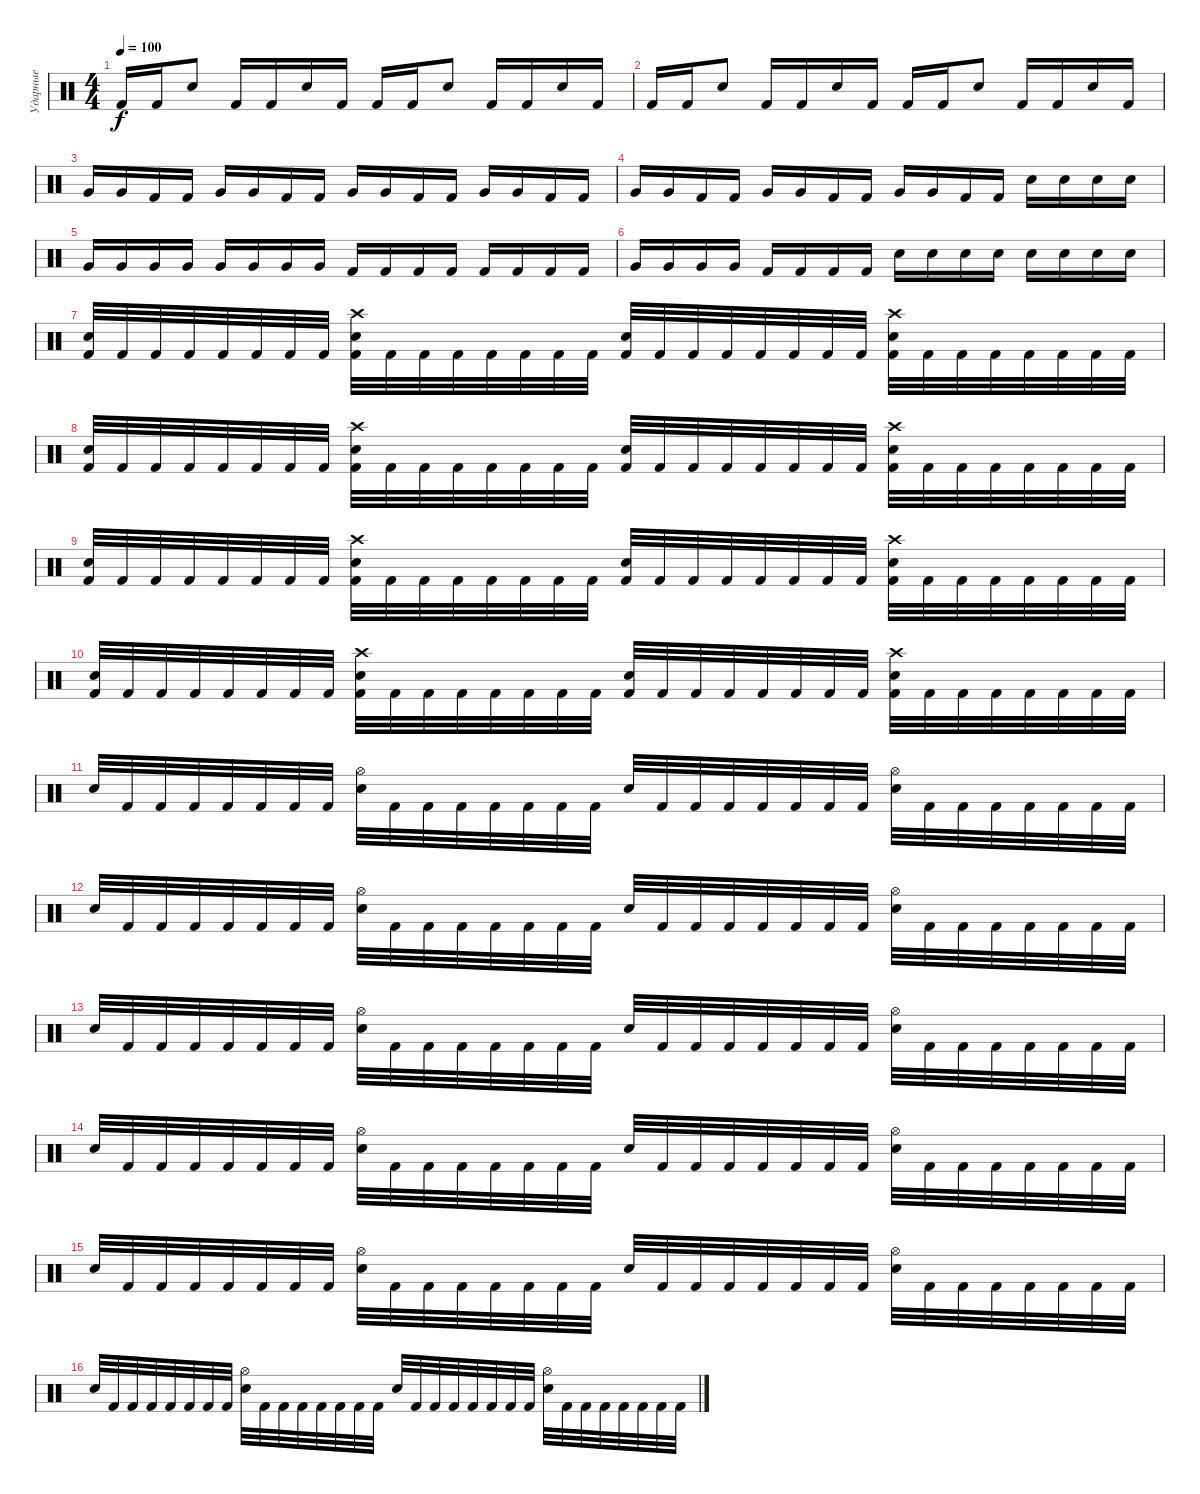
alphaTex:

\track ("Ударные" "Ударные") {instrument percussion}
\staff {score}
\articulation defaults
\ts (4 4)
\tempo 100
\clef neutral
\ks c "Kick (hit) 2".16{dy f} "Kick (hit) 2".16 "Electric Snare (hit)".8 "Kick (hit) 2".16 "Kick (hit) 2".16 "Electric Snare (hit)".16 "Kick (hit) 2".16 "Kick (hit) 2".16 "Kick (hit) 2".16 "Electric Snare (hit)".8 "Kick (hit) 2".16 "Kick (hit) 2".16 "Electric Snare (hit)".16 "Kick (hit) 2".16
|
"Kick (hit) 2".16 "Kick (hit) 2".16 "Electric Snare (hit)".8 "Kick (hit) 2".16 "Kick (hit) 2".16 "Electric Snare (hit)".16 "Kick (hit) 2".16 "Kick (hit) 2".16 "Kick (hit) 2".16 "Electric Snare (hit)".8 "Kick (hit) 2".16 "Kick (hit) 2".16 "Electric Snare (hit)".16 "Kick (hit) 2".16 |
"Very Low Tom (hit)".16 "Very Low Tom (hit)".16 "Kick (hit) 2".16 "Kick (hit) 2".16 "Very Low Tom (hit)".16 "Very Low Tom (hit)".16 "Kick (hit) 2".16 "Kick (hit) 2".16 "Very Low Tom (hit)".16 "Very Low Tom (hit)".16 "Kick (hit) 2".16 "Kick (hit) 2".16 "Very Low Tom (hit)".16 "Very Low Tom (hit)".16 "Kick (hit) 2".16 "Kick (hit) 2".16 |
"Very Low Tom (hit)".16 "Very Low Tom (hit)".16 "Kick (hit) 2".16 "Kick (hit) 2".16 "Very Low Tom (hit)".16 "Very Low Tom (hit)".16 "Kick (hit) 2".16 "Kick (hit) 2".16 "Very Low Tom (hit)".16 "Very Low Tom (hit)".16 "Kick (hit) 2".16 "Kick (hit) 2".16 "Electric Snare (hit)".16 "Electric Snare (hit)".16 "Electric Snare (hit)".16 "Electric Snare (hit)".16 |
"Very Low Tom (hit)".16 "Very Low Tom (hit)".16 "Very Low Tom (hit)".16 "Very Low Tom (hit)".16 "Very Low Tom (hit)".16 "Very Low Tom (hit)".16 "Very Low Tom (hit)".16 "Very Low Tom (hit)".16 "Kick (hit) 2".16 "Kick (hit) 2".16 "Kick (hit) 2".16 "Kick (hit) 2".16 "Kick (hit) 2".16 "Kick (hit) 2".16 "Kick (hit) 2".16 "Kick (hit) 2".16 |
"Very Low Tom (hit)".16 "Very Low Tom (hit)".16 "Very Low Tom (hit)".16 "Very Low Tom (hit)".16 "Kick (hit) 2".16 "Kick (hit) 2".16 "Kick (hit) 2".16 "Kick (hit) 2".16 "Electric Snare (hit)".16 "Electric Snare (hit)".16 "Electric Snare (hit)".16 "Electric Snare (hit)".16 "Electric Snare (hit)".16 "Electric Snare (hit)".16 "Electric Snare (hit)".16 "Electric Snare (hit)".16 |
("Electric Snare (hit)" "Kick (hit) 2").32 "Kick (hit) 2".32 "Kick (hit) 2".32 "Kick (hit) 2".32 "Kick (hit) 2".32 "Kick (hit) 2".32 "Kick (hit) 2".32 "Kick (hit) 2".32 ("Crash high (hit)" "Electric Snare (hit)" "Kick (hit) 2").32 "Kick (hit) 2".32 "Kick (hit) 2".32 "Kick (hit) 2".32 "Kick (hit) 2".32 "Kick (hit) 2".32 "Kick (hit) 2".32 "Kick (hit) 2".32 ("Electric Snare (hit)" "Kick (hit) 2").32 "Kick (hit) 2".32 "Kick (hit) 2".32 "Kick (hit) 2".32 "Kick (hit) 2".32 "Kick (hit) 2".32 "Kick (hit) 2".32 "Kick (hit) 2".32 ("Crash high (hit)" "Electric Snare (hit)" "Kick (hit) 2").32 "Kick (hit) 2".32 "Kick (hit) 2".32 "Kick (hit) 2".32 "Kick (hit) 2".32 "Kick (hit) 2".32 "Kick (hit) 2".32 "Kick (hit) 2".32 |
("Electric Snare (hit)" "Kick (hit) 2").32 "Kick (hit) 2".32 "Kick (hit) 2".32 "Kick (hit) 2".32 "Kick (hit) 2".32 "Kick (hit) 2".32 "Kick (hit) 2".32 "Kick (hit) 2".32 ("Crash high (hit)" "Electric Snare (hit)" "Kick (hit) 2").32 "Kick (hit) 2".32 "Kick (hit) 2".32 "Kick (hit) 2".32 "Kick (hit) 2".32 "Kick (hit) 2".32 "Kick (hit) 2".32 "Kick (hit) 2".32 ("Electric Snare (hit)" "Kick (hit) 2").32 "Kick (hit) 2".32 "Kick (hit) 2".32 "Kick (hit) 2".32 "Kick (hit) 2".32 "Kick (hit) 2".32 "Kick (hit) 2".32 "Kick (hit) 2".32 ("Crash high (hit)" "Electric Snare (hit)" "Kick (hit) 2").32 "Kick (hit) 2".32 "Kick (hit) 2".32 "Kick (hit) 2".32 "Kick (hit) 2".32 "Kick (hit) 2".32 "Kick (hit) 2".32 "Kick (hit) 2".32 |
("Electric Snare (hit)" "Kick (hit) 2").32 "Kick (hit) 2".32 "Kick (hit) 2".32 "Kick (hit) 2".32 "Kick (hit) 2".32 "Kick (hit) 2".32 "Kick (hit) 2".32 "Kick (hit) 2".32 ("Crash high (hit)" "Electric Snare (hit)" "Kick (hit) 2").32 "Kick (hit) 2".32 "Kick (hit) 2".32 "Kick (hit) 2".32 "Kick (hit) 2".32 "Kick (hit) 2".32 "Kick (hit) 2".32 "Kick (hit) 2".32 ("Electric Snare (hit)" "Kick (hit) 2").32 "Kick (hit) 2".32 "Kick (hit) 2".32 "Kick (hit) 2".32 "Kick (hit) 2".32 "Kick (hit) 2".32 "Kick (hit) 2".32 "Kick (hit) 2".32 ("Crash high (hit)" "Electric Snare (hit)" "Kick (hit) 2").32 "Kick (hit) 2".32 "Kick (hit) 2".32 "Kick (hit) 2".32 "Kick (hit) 2".32 "Kick (hit) 2".32 "Kick (hit) 2".32 "Kick (hit) 2".32 |
("Electric Snare (hit)" "Kick (hit) 2").32 "Kick (hit) 2".32 "Kick (hit) 2".32 "Kick (hit) 2".32 "Kick (hit) 2".32 "Kick (hit) 2".32 "Kick (hit) 2".32 "Kick (hit) 2".32 ("Crash high (hit)" "Electric Snare (hit)" "Kick (hit) 2").32 "Kick (hit) 2".32 "Kick (hit) 2".32 "Kick (hit) 2".32 "Kick (hit) 2".32 "Kick (hit) 2".32 "Kick (hit) 2".32 "Kick (hit) 2".32 ("Electric Snare (hit)" "Kick (hit) 2").32 "Kick (hit) 2".32 "Kick (hit) 2".32 "Kick (hit) 2".32 "Kick (hit) 2".32 "Kick (hit) 2".32 "Kick (hit) 2".32 "Kick (hit) 2".32 ("Crash high (hit)" "Electric Snare (hit)" "Kick (hit) 2").32 "Kick (hit) 2".32 "Kick (hit) 2".32 "Kick (hit) 2".32 "Kick (hit) 2".32 "Kick (hit) 2".32 "Kick (hit) 2".32 "Kick (hit) 2".32 |
"Electric Snare (hit)".32 "Kick (hit) 2".32 "Kick (hit) 2".32 "Kick (hit) 2".32 "Kick (hit) 2".32 "Kick (hit) 2".32 "Kick (hit) 2".32 "Kick (hit) 2".32 ("Hi-Hat (open)" "Electric Snare (hit)").32 "Kick (hit) 2".32 "Kick (hit) 2".32 "Kick (hit) 2".32 "Kick (hit) 2".32 "Kick (hit) 2".32 "Kick (hit) 2".32 "Kick (hit) 2".32 "Electric Snare (hit)".32 "Kick (hit) 2".32 "Kick (hit) 2".32 "Kick (hit) 2".32 "Kick (hit) 2".32 "Kick (hit) 2".32 "Kick (hit) 2".32 "Kick (hit) 2".32 ("Hi-Hat (open)" "Electric Snare (hit)").32 "Kick (hit) 2".32 "Kick (hit) 2".32 "Kick (hit) 2".32 "Kick (hit) 2".32 "Kick (hit) 2".32 "Kick (hit) 2".32 "Kick (hit) 2".32 |
"Electric Snare (hit)".32 "Kick (hit) 2".32 "Kick (hit) 2".32 "Kick (hit) 2".32 "Kick (hit) 2".32 "Kick (hit) 2".32 "Kick (hit) 2".32 "Kick (hit) 2".32 ("Hi-Hat (open)" "Electric Snare (hit)").32 "Kick (hit) 2".32 "Kick (hit) 2".32 "Kick (hit) 2".32 "Kick (hit) 2".32 "Kick (hit) 2".32 "Kick (hit) 2".32 "Kick (hit) 2".32 "Electric Snare (hit)".32 "Kick (hit) 2".32 "Kick (hit) 2".32 "Kick (hit) 2".32 "Kick (hit) 2".32 "Kick (hit) 2".32 "Kick (hit) 2".32 "Kick (hit) 2".32 ("Hi-Hat (open)" "Electric Snare (hit)").32 "Kick (hit) 2".32 "Kick (hit) 2".32 "Kick (hit) 2".32 "Kick (hit) 2".32 "Kick (hit) 2".32 "Kick (hit) 2".32 "Kick (hit) 2".32 |
"Electric Snare (hit)".32 "Kick (hit) 2".32 "Kick (hit) 2".32 "Kick (hit) 2".32 "Kick (hit) 2".32 "Kick (hit) 2".32 "Kick (hit) 2".32 "Kick (hit) 2".32 ("Hi-Hat (open)" "Electric Snare (hit)").32 "Kick (hit) 2".32 "Kick (hit) 2".32 "Kick (hit) 2".32 "Kick (hit) 2".32 "Kick (hit) 2".32 "Kick (hit) 2".32 "Kick (hit) 2".32 "Electric Snare (hit)".32 "Kick (hit) 2".32 "Kick (hit) 2".32 "Kick (hit) 2".32 "Kick (hit) 2".32 "Kick (hit) 2".32 "Kick (hit) 2".32 "Kick (hit) 2".32 ("Hi-Hat (open)" "Electric Snare (hit)").32 "Kick (hit) 2".32 "Kick (hit) 2".32 "Kick (hit) 2".32 "Kick (hit) 2".32 "Kick (hit) 2".32 "Kick (hit) 2".32 "Kick (hit) 2".32 |
"Electric Snare (hit)".32 "Kick (hit) 2".32 "Kick (hit) 2".32 "Kick (hit) 2".32 "Kick (hit) 2".32 "Kick (hit) 2".32 "Kick (hit) 2".32 "Kick (hit) 2".32 ("Hi-Hat (open)" "Electric Snare (hit)").32 "Kick (hit) 2".32 "Kick (hit) 2".32 "Kick (hit) 2".32 "Kick (hit) 2".32 "Kick (hit) 2".32 "Kick (hit) 2".32 "Kick (hit) 2".32 "Electric Snare (hit)".32 "Kick (hit) 2".32 "Kick (hit) 2".32 "Kick (hit) 2".32 "Kick (hit) 2".32 "Kick (hit) 2".32 "Kick (hit) 2".32 "Kick (hit) 2".32 ("Hi-Hat (open)" "Electric Snare (hit)").32 "Kick (hit) 2".32 "Kick (hit) 2".32 "Kick (hit) 2".32 "Kick (hit) 2".32 "Kick (hit) 2".32 "Kick (hit) 2".32 "Kick (hit) 2".32 |
"Electric Snare (hit)".32 "Kick (hit) 2".32 "Kick (hit) 2".32 "Kick (hit) 2".32 "Kick (hit) 2".32 "Kick (hit) 2".32 "Kick (hit) 2".32 "Kick (hit) 2".32 ("Hi-Hat (open)" "Electric Snare (hit)").32 "Kick (hit) 2".32 "Kick (hit) 2".32 "Kick (hit) 2".32 "Kick (hit) 2".32 "Kick (hit) 2".32 "Kick (hit) 2".32 "Kick (hit) 2".32 "Electric Snare (hit)".32 "Kick (hit) 2".32 "Kick (hit) 2".32 "Kick (hit) 2".32 "Kick (hit) 2".32 "Kick (hit) 2".32 "Kick (hit) 2".32 "Kick (hit) 2".32 ("Hi-Hat (open)" "Electric Snare (hit)").32 "Kick (hit) 2".32 "Kick (hit) 2".32 "Kick (hit) 2".32 "Kick (hit) 2".32 "Kick (hit) 2".32 "Kick (hit) 2".32 "Kick (hit) 2".32 |
"Electric Snare (hit)".32 "Kick (hit) 2".32 "Kick (hit) 2".32 "Kick (hit) 2".32 "Kick (hit) 2".32 "Kick (hit) 2".32 "Kick (hit) 2".32 "Kick (hit) 2".32 ("Hi-Hat (open)" "Electric Snare (hit)").32 "Kick (hit) 2".32 "Kick (hit) 2".32 "Kick (hit) 2".32 "Kick (hit) 2".32 "Kick (hit) 2".32 "Kick (hit) 2".32 "Kick (hit) 2".32 "Electric Snare (hit)".32 "Kick (hit) 2".32 "Kick (hit) 2".32 "Kick (hit) 2".32 "Kick (hit) 2".32 "Kick (hit) 2".32 "Kick (hit) 2".32 "Kick (hit) 2".32 ("Hi-Hat (open)" "Electric Snare (hit)").32 "Kick (hit) 2".32 "Kick (hit) 2".32 "Kick (hit) 2".32 "Kick (hit) 2".32 "Kick (hit) 2".32 "Kick (hit) 2".32 "Kick (hit) 2".32
